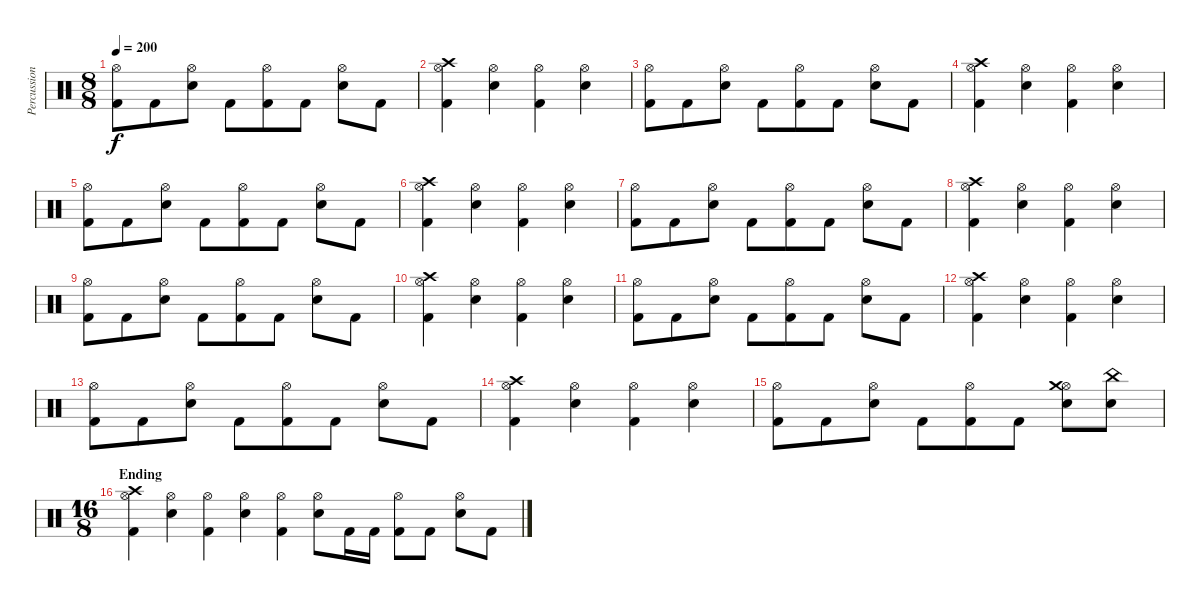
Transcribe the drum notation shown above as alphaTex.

\track ("Percussions" "Percussion") {instrument percussion}
\staff {score}
\articulation defaults
\ts (8 8)
\tempo 200
\clef neutral
\ks c
("Hi-Hat (open)" "Kick (hit) 2").8{dy f} "Kick (hit) 2".8 ("Hi-Hat (open)" "Electric Snare (hit)").8 "Kick (hit) 2".8 ("Hi-Hat (open)" "Kick (hit) 2").8 "Kick (hit) 2".8 ("Hi-Hat (open)" "Electric Snare (hit)").8 "Kick (hit) 2".8 |
("Crash high (hit)" "Hi-Hat (open)" "Kick (hit) 2").4 ("Hi-Hat (open)" "Electric Snare (hit)").4 ("Hi-Hat (open)" "Kick (hit) 2").4 ("Hi-Hat (open)" "Electric Snare (hit)").4 |
("Hi-Hat (open)" "Kick (hit) 2").8 "Kick (hit) 2".8 ("Hi-Hat (open)" "Electric Snare (hit)").8 "Kick (hit) 2".8 ("Hi-Hat (open)" "Kick (hit) 2").8 "Kick (hit) 2".8 ("Hi-Hat (open)" "Electric Snare (hit)").8 "Kick (hit) 2".8 |
("Crash high (hit)" "Hi-Hat (open)" "Kick (hit) 2").4 ("Hi-Hat (open)" "Electric Snare (hit)").4 ("Hi-Hat (open)" "Kick (hit) 2").4 ("Hi-Hat (open)" "Electric Snare (hit)").4 |
("Hi-Hat (open)" "Kick (hit) 2").8 "Kick (hit) 2".8 ("Hi-Hat (open)" "Electric Snare (hit)").8 "Kick (hit) 2".8 ("Hi-Hat (open)" "Kick (hit) 2").8 "Kick (hit) 2".8 ("Hi-Hat (open)" "Electric Snare (hit)").8 "Kick (hit) 2".8 |
("Crash high (hit)" "Hi-Hat (open)" "Kick (hit) 2").4 ("Hi-Hat (open)" "Electric Snare (hit)").4 ("Hi-Hat (open)" "Kick (hit) 2").4 ("Hi-Hat (open)" "Electric Snare (hit)").4 |
("Hi-Hat (open)" "Kick (hit) 2").8 "Kick (hit) 2".8 ("Hi-Hat (open)" "Electric Snare (hit)").8 "Kick (hit) 2".8 ("Hi-Hat (open)" "Kick (hit) 2").8 "Kick (hit) 2".8 ("Hi-Hat (open)" "Electric Snare (hit)").8 "Kick (hit) 2".8 |
("Crash high (hit)" "Hi-Hat (open)" "Kick (hit) 2").4 ("Hi-Hat (open)" "Electric Snare (hit)").4 ("Hi-Hat (open)" "Kick (hit) 2").4 ("Hi-Hat (open)" "Electric Snare (hit)").4 |
("Hi-Hat (open)" "Kick (hit) 2").8 "Kick (hit) 2".8 ("Hi-Hat (open)" "Electric Snare (hit)").8 "Kick (hit) 2".8 ("Hi-Hat (open)" "Kick (hit) 2").8 "Kick (hit) 2".8 ("Hi-Hat (open)" "Electric Snare (hit)").8 "Kick (hit) 2".8 |
("Crash high (hit)" "Hi-Hat (open)" "Kick (hit) 2").4 ("Hi-Hat (open)" "Electric Snare (hit)").4 ("Hi-Hat (open)" "Kick (hit) 2").4 ("Hi-Hat (open)" "Electric Snare (hit)").4 |
("Hi-Hat (open)" "Kick (hit) 2").8 "Kick (hit) 2".8 ("Hi-Hat (open)" "Electric Snare (hit)").8 "Kick (hit) 2".8 ("Hi-Hat (open)" "Kick (hit) 2").8 "Kick (hit) 2".8 ("Hi-Hat (open)" "Electric Snare (hit)").8 "Kick (hit) 2".8 |
("Crash high (hit)" "Hi-Hat (open)" "Kick (hit) 2").4 ("Hi-Hat (open)" "Electric Snare (hit)").4 ("Hi-Hat (open)" "Kick (hit) 2").4 ("Hi-Hat (open)" "Electric Snare (hit)").4 |
("Hi-Hat (open)" "Kick (hit) 2").8 "Kick (hit) 2".8 ("Hi-Hat (open)" "Electric Snare (hit)").8 "Kick (hit) 2".8 ("Hi-Hat (open)" "Kick (hit) 2").8 "Kick (hit) 2".8 ("Hi-Hat (open)" "Electric Snare (hit)").8 "Kick (hit) 2".8 |
("Crash high (hit)" "Hi-Hat (open)" "Kick (hit) 2").4 ("Hi-Hat (open)" "Electric Snare (hit)").4 ("Hi-Hat (open)" "Kick (hit) 2").4 ("Hi-Hat (open)" "Electric Snare (hit)").4 |
("Hi-Hat (open)" "Kick (hit) 2").8 "Kick (hit) 2".8 ("Hi-Hat (open)" "Electric Snare (hit)").8 "Kick (hit) 2".8 ("Hi-Hat (open)" "Kick (hit) 2").8 "Kick (hit) 2".8 ("Hi-Hat (open)" "Crash medium (hit)" "Electric Snare (hit)").8 ("China (hit)" "Electric Snare (hit)").8 |
\ts (16 8)
\section ("" "Ending")
("Hi-Hat (open)" "Crash high (hit)" "Kick (hit) 2").4 ("Hi-Hat (open)" "Electric Snare (hit)").4 ("Hi-Hat (open)" "Kick (hit) 2").4 ("Hi-Hat (open)" "Electric Snare (hit)").4 ("Hi-Hat (open)" "Kick (hit) 2").4 ("Hi-Hat (open)" "Electric Snare (hit)").8 "Kick (hit) 2".16 "Kick (hit) 2".16 ("Hi-Hat (open)" "Kick (hit) 2").8 "Kick (hit) 2".8 ("Hi-Hat (open)" "Electric Snare (hit)").8 "Kick (hit) 2".8
